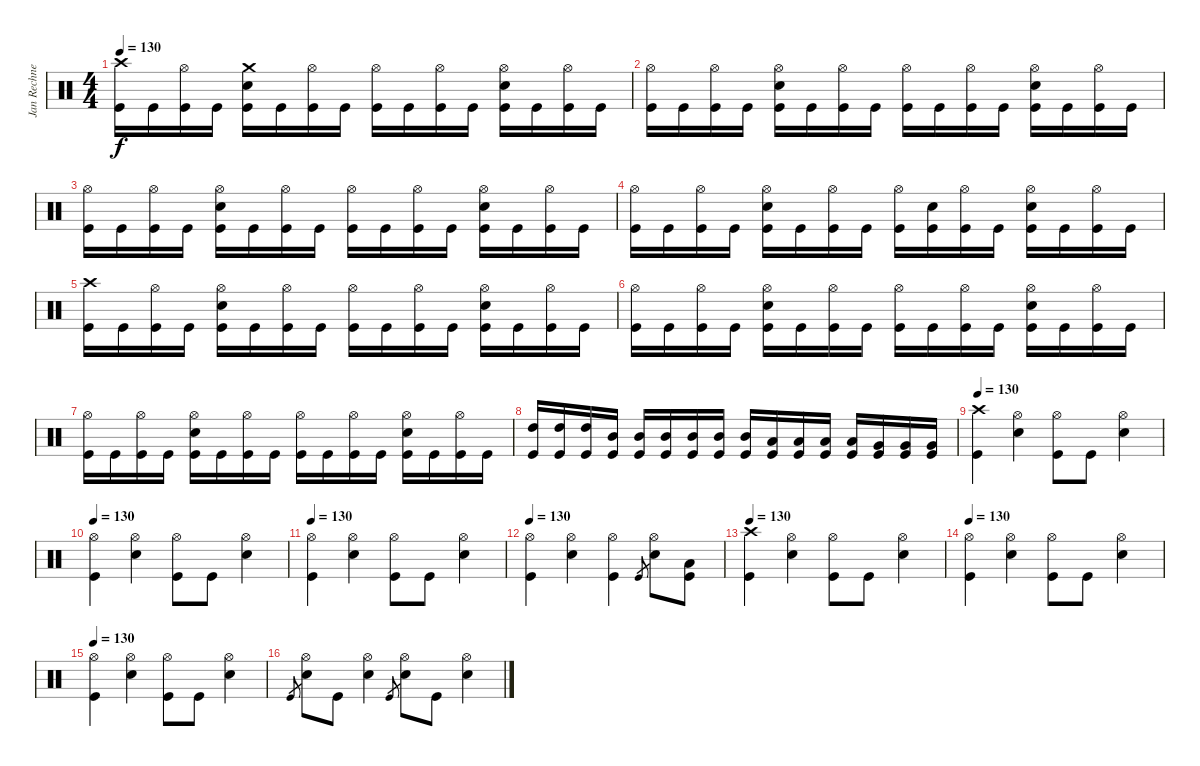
\track ("Jan Rechnerger" "Jan Rechne") {instrument percussion}
\staff {score}
\articulation defaults
\ts (4 4)
\tempo 130
\clef neutral
\ks c
("Kick (hit)" "Crash high (hit)").16{dy f} "Kick (hit)".16 ("Kick (hit)" "Hi-Hat (open)").16 "Kick (hit)".16 ("Kick (hit)" "Snare (hit) 2" "Crash medium (hit)").16 "Kick (hit)".16 ("Kick (hit)" "Hi-Hat (open)").16 "Kick (hit)".16 ("Kick (hit)" "Hi-Hat (open)").16 "Kick (hit)".16 ("Kick (hit)" "Hi-Hat (open)").16 "Kick (hit)".16 ("Kick (hit)" "Snare (hit) 2" "Hi-Hat (open)").16 "Kick (hit)".16 ("Kick (hit)" "Hi-Hat (open)").16 "Kick (hit)".16 |
("Kick (hit)" "Hi-Hat (open)").16 "Kick (hit)".16 ("Kick (hit)" "Hi-Hat (open)").16 "Kick (hit)".16 ("Kick (hit)" "Snare (hit) 2" "Hi-Hat (open)").16 "Kick (hit)".16 ("Kick (hit)" "Hi-Hat (open)").16 "Kick (hit)".16 ("Kick (hit)" "Hi-Hat (open)").16 "Kick (hit)".16 ("Kick (hit)" "Hi-Hat (open)").16 "Kick (hit)".16 ("Kick (hit)" "Snare (hit) 2" "Hi-Hat (open)").16 "Kick (hit)".16 ("Kick (hit)" "Hi-Hat (open)").16 "Kick (hit)".16 |
("Kick (hit)" "Hi-Hat (open)").16 "Kick (hit)".16 ("Kick (hit)" "Hi-Hat (open)").16 "Kick (hit)".16 ("Kick (hit)" "Snare (hit) 2" "Hi-Hat (open)").16 "Kick (hit)".16 ("Kick (hit)" "Hi-Hat (open)").16 "Kick (hit)".16 ("Kick (hit)" "Hi-Hat (open)").16 "Kick (hit)".16 ("Kick (hit)" "Hi-Hat (open)").16 "Kick (hit)".16 ("Kick (hit)" "Snare (hit) 2" "Hi-Hat (open)").16 "Kick (hit)".16 ("Kick (hit)" "Hi-Hat (open)").16 "Kick (hit)".16 |
("Kick (hit)" "Hi-Hat (open)").16 "Kick (hit)".16 ("Kick (hit)" "Hi-Hat (open)").16 "Kick (hit)".16 ("Kick (hit)" "Snare (hit) 2" "Hi-Hat (open)").16 "Kick (hit)".16 ("Kick (hit)" "Hi-Hat (open)").16 "Kick (hit)".16 ("Kick (hit)" "Hi-Hat (open)").16 ("Kick (hit)" "Snare (hit) 2").16 ("Kick (hit)" "Hi-Hat (open)").16 "Kick (hit)".16 ("Kick (hit)" "Snare (hit) 2" "Hi-Hat (open)").16 "Kick (hit)".16 ("Kick (hit)" "Hi-Hat (open)").16 "Kick (hit)".16 |
("Kick (hit)" "Crash high (hit)").16 "Kick (hit)".16 ("Kick (hit)" "Hi-Hat (open)").16 "Kick (hit)".16 ("Kick (hit)" "Snare (hit) 2" "Hi-Hat (open)").16 "Kick (hit)".16 ("Kick (hit)" "Hi-Hat (open)").16 "Kick (hit)".16 ("Kick (hit)" "Hi-Hat (open)").16 "Kick (hit)".16 ("Kick (hit)" "Hi-Hat (open)").16 "Kick (hit)".16 ("Kick (hit)" "Snare (hit) 2" "Hi-Hat (open)").16 "Kick (hit)".16 ("Kick (hit)" "Hi-Hat (open)").16 "Kick (hit)".16 |
("Kick (hit)" "Hi-Hat (open)").16 "Kick (hit)".16 ("Kick (hit)" "Hi-Hat (open)").16 "Kick (hit)".16 ("Kick (hit)" "Snare (hit) 2" "Hi-Hat (open)").16 "Kick (hit)".16 ("Kick (hit)" "Hi-Hat (open)").16 "Kick (hit)".16 ("Kick (hit)" "Hi-Hat (open)").16 "Kick (hit)".16 ("Kick (hit)" "Hi-Hat (open)").16 "Kick (hit)".16 ("Kick (hit)" "Snare (hit) 2" "Hi-Hat (open)").16 "Kick (hit)".16 ("Kick (hit)" "Hi-Hat (open)").16 "Kick (hit)".16 |
("Kick (hit)" "Hi-Hat (open)").16 "Kick (hit)".16 ("Kick (hit)" "Hi-Hat (open)").16 "Kick (hit)".16 ("Kick (hit)" "Snare (hit) 2" "Hi-Hat (open)").16 "Kick (hit)".16 ("Kick (hit)" "Hi-Hat (open)").16 "Kick (hit)".16 ("Kick (hit)" "Hi-Hat (open)").16 "Kick (hit)".16 ("Kick (hit)" "Hi-Hat (open)").16 "Kick (hit)".16 ("Kick (hit)" "Snare (hit) 2" "Hi-Hat (open)").16 "Kick (hit)".16 ("Kick (hit)" "Hi-Hat (open)").16 "Kick (hit)".16 |
("Kick (hit)" "High Tom (hit)").16 ("Kick (hit)" "High Tom (hit)").16 ("Kick (hit)" "High Tom (hit)").16 ("Kick (hit)" "Mid Tom (hit)").16 ("Kick (hit)" "Mid Tom (hit)").16 ("Kick (hit)" "Mid Tom (hit)").16 ("Kick (hit)" "Mid Tom (hit)").16 ("Kick (hit)" "Mid Tom (hit)").16 ("Kick (hit)" "Mid Tom (hit)").16 ("Kick (hit)" "Low Tom (hit)").16 ("Kick (hit)" "Low Tom (hit)").16 ("Kick (hit)" "Low Tom (hit)").16 ("Kick (hit)" "Low Tom (hit)").16 ("Kick (hit)" "Very Low Tom (hit)").16 ("Kick (hit)" "Very Low Tom (hit)").16 ("Kick (hit)" "Very Low Tom (hit)").16 |
\tempo 130
("Kick (hit)" "Crash high (hit)").4 ("Snare (hit) 2" "Hi-Hat (open)").4 ("Kick (hit)" "Hi-Hat (open)").8 "Kick (hit)".8 ("Snare (hit) 2" "Hi-Hat (open)").4 |
\tempo 130
("Kick (hit)" "Hi-Hat (open)").4 ("Snare (hit) 2" "Hi-Hat (open)").4 ("Kick (hit)" "Hi-Hat (open)").8 "Kick (hit)".8 ("Snare (hit) 2" "Hi-Hat (open)").4 |
\tempo 130
("Kick (hit)" "Hi-Hat (open)").4 ("Snare (hit) 2" "Hi-Hat (open)").4 ("Kick (hit)" "Hi-Hat (open)").8 "Kick (hit)".8 ("Snare (hit) 2" "Hi-Hat (open)").4 |
\tempo 130
("Kick (hit)" "Hi-Hat (open)").4 ("Snare (hit) 2" "Hi-Hat (open)").4 ("Kick (hit)" "Hi-Hat (open)").4 "Kick (hit)".8{gr} ("Snare (hit) 2" "Hi-Hat (open)").8 ("Kick (hit)" "Low Tom (hit)").8 |
\tempo 130
("Kick (hit)" "Crash high (hit)").4 ("Snare (hit) 2" "Hi-Hat (open)").4 ("Kick (hit)" "Hi-Hat (open)").8 "Kick (hit)".8 ("Snare (hit) 2" "Hi-Hat (open)").4 |
\tempo 130
("Kick (hit)" "Hi-Hat (open)").4 ("Snare (hit) 2" "Hi-Hat (open)").4 ("Kick (hit)" "Hi-Hat (open)").8 "Kick (hit)".8 ("Snare (hit) 2" "Hi-Hat (open)").4 |
\tempo 130
("Kick (hit)" "Hi-Hat (open)").4 ("Snare (hit) 2" "Hi-Hat (open)").4 ("Kick (hit)" "Hi-Hat (open)").8 "Kick (hit)".8 ("Snare (hit) 2" "Hi-Hat (open)").4 |
"Kick (hit)".8{gr} ("Snare (hit) 2" "Hi-Hat (open)").8 "Kick (hit)".8 ("Snare (hit) 2" "Hi-Hat (open)").4 "Kick (hit)".8{gr} ("Snare (hit) 2" "Hi-Hat (open)").8 "Kick (hit)".8 ("Snare (hit) 2" "Hi-Hat (open)").4
